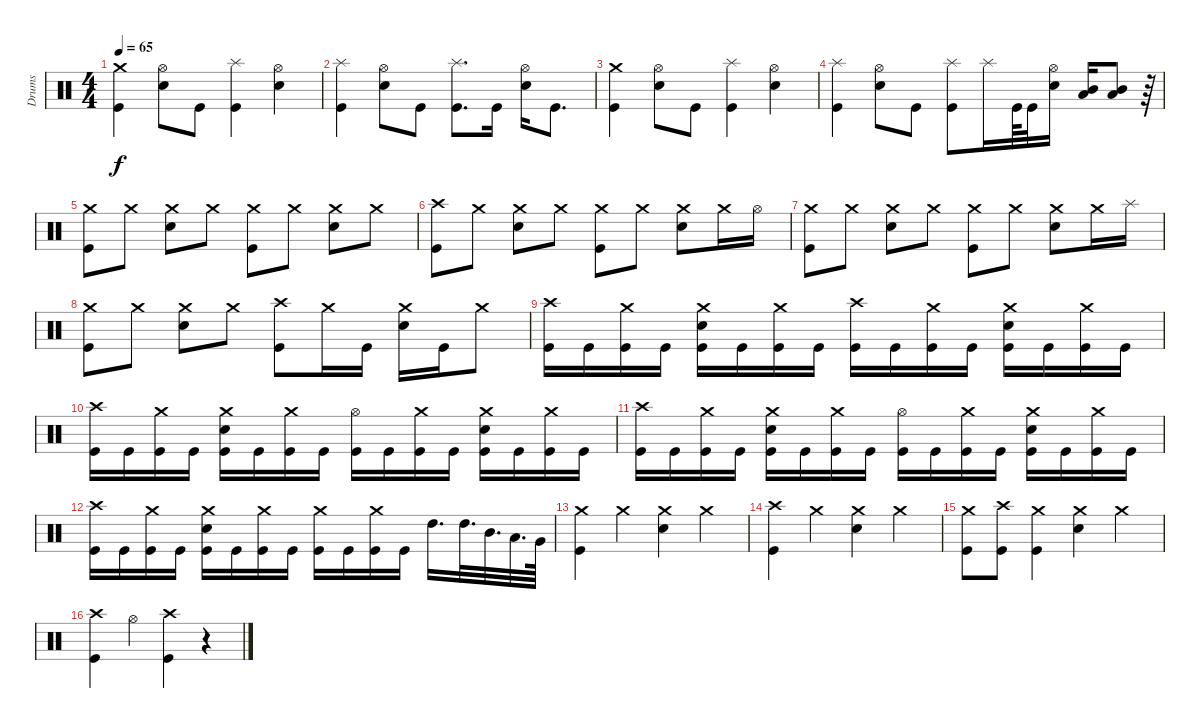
\track ("Drums" "Drums") {instrument percussion}
\staff {score}
\articulation defaults
\ts (4 4)
\tempo 65
\clef neutral
\ks c
("Crash medium (hit)" "Kick (hit)").4{dy f} ("Hi-Hat (open)" "Snare (hit) 2").8 "Kick (hit)".8 ("Splash (hit)" "Kick (hit)").4 ("Hi-Hat (open)" "Snare (hit) 2").4 |
("Splash (hit)" "Kick (hit)").4 ("Hi-Hat (open)" "Snare (hit) 2").8 "Kick (hit)".8 ("Splash (hit)" "Kick (hit)").8{d} "Kick (hit)".16 ("Hi-Hat (open)" "Snare (hit) 2").16 "Kick (hit)".8{d} |
("Crash medium (hit)" "Kick (hit)").4 ("Hi-Hat (open)" "Snare (hit) 2").8 "Kick (hit)".8 ("Splash (hit)" "Kick (hit)").4 ("Hi-Hat (open)" "Snare (hit) 2").4 |
("Splash (hit)" "Kick (hit)").4 ("Hi-Hat (open)" "Snare (hit) 2").8 "Kick (hit)".8 ("Splash (hit)" "Kick (hit)").8 "Splash (hit)".16 "Kick (hit)".64 "Kick (hit)".32 ("Hi-Hat (open)" "Snare (hit) 2").16 ("Low Floor Tom (hit)" "Mid Tom (hit)").16 ("Low Floor Tom (hit)" "Mid Tom (hit)").8 r.64 |
("Crash medium (hit)" "Kick (hit)").8 "Crash medium (hit)".8 ("Crash medium (hit)" "Snare (hit) 2").8 "Crash medium (hit)".8 ("Crash medium (hit)" "Kick (hit)").8 "Crash medium (hit)".8 ("Crash medium (hit)" "Snare (hit) 2").8 "Crash medium (hit)".8 |
("Crash high (hit)" "Kick (hit)").8 "Crash medium (hit)".8 ("Crash medium (hit)" "Snare (hit) 2").8 "Crash medium (hit)".8 ("Crash medium (hit)" "Kick (hit)").8 "Crash medium (hit)".8 ("Crash medium (hit)" "Snare (hit) 2").8 "Crash medium (hit)".16 "Hi-Hat (open)".16 |
("Crash medium (hit)" "Kick (hit)").8 "Crash medium (hit)".8 ("Crash medium (hit)" "Snare (hit) 2").8 "Crash medium (hit)".8 ("Crash medium (hit)" "Kick (hit)").8 "Crash medium (hit)".8 ("Crash medium (hit)" "Snare (hit) 2").8 "Crash medium (hit)".16 "Splash (hit)".16 |
("Crash medium (hit)" "Kick (hit)").8 "Crash medium (hit)".8 ("Crash medium (hit)" "Snare (hit) 2").8 "Crash medium (hit)".8 ("Crash high (hit)" "Kick (hit)").8 "Crash medium (hit)".16 "Kick (hit)".16 ("Crash medium (hit)" "Snare (hit) 2").16 "Kick (hit)".16 "Crash medium (hit)".8 |
("Crash high (hit)" "Kick (hit)").16 "Kick (hit)".16 ("Crash medium (hit)" "Kick (hit)").16 "Kick (hit)".16 ("Crash medium (hit)" "Snare (hit) 2" "Kick (hit)").16 "Kick (hit)".16 ("Crash medium (hit)" "Kick (hit)").16 "Kick (hit)".16 ("Crash high (hit)" "Kick (hit)").16 "Kick (hit)".16 ("Crash medium (hit)" "Kick (hit)").16 "Kick (hit)".16 ("Crash medium (hit)" "Snare (hit) 2" "Kick (hit)").16 "Kick (hit)".16 ("Crash medium (hit)" "Kick (hit)").16 "Kick (hit)".16 |
("Crash high (hit)" "Kick (hit)").16 "Kick (hit)".16 ("Crash medium (hit)" "Kick (hit)").16 "Kick (hit)".16 ("Crash medium (hit)" "Snare (hit) 2" "Kick (hit)").16 "Kick (hit)".16 ("Crash medium (hit)" "Kick (hit)").16 "Kick (hit)".16 ("Hi-Hat (open)" "Kick (hit)").16 "Kick (hit)".16 ("Crash medium (hit)" "Kick (hit)").16 "Kick (hit)".16 ("Crash medium (hit)" "Snare (hit) 2" "Kick (hit)").16 "Kick (hit)".16 ("Crash medium (hit)" "Kick (hit)").16 "Kick (hit)".16 |
("Crash high (hit)" "Kick (hit)").16 "Kick (hit)".16 ("Crash medium (hit)" "Kick (hit)").16 "Kick (hit)".16 ("Crash medium (hit)" "Snare (hit) 2" "Kick (hit)").16 "Kick (hit)".16 ("Crash medium (hit)" "Kick (hit)").16 "Kick (hit)".16 ("Hi-Hat (open)" "Kick (hit)").16 "Kick (hit)".16 ("Crash medium (hit)" "Kick (hit)").16 "Kick (hit)".16 ("Crash medium (hit)" "Snare (hit) 2" "Kick (hit)").16 "Kick (hit)".16 ("Crash medium (hit)" "Kick (hit)").16 "Kick (hit)".16 |
("Crash high (hit)" "Kick (hit)").16 "Kick (hit)".16 ("Crash medium (hit)" "Kick (hit)").16 "Kick (hit)".16 ("Crash medium (hit)" "Snare (hit) 2" "Kick (hit)").16 "Kick (hit)".16 ("Crash medium (hit)" "Kick (hit)").16 "Kick (hit)".16 ("Crash medium (hit)" "Kick (hit)").16 "Kick (hit)".16 ("Crash medium (hit)" "Kick (hit)").16 "Kick (hit)".16 "High Tom (hit)".16{d} "High Tom (hit)".32{d} "Mid Tom (hit)".32{d} "Low Tom (hit)".32{d} "Very Low Tom (hit)".64 |
("Crash medium (hit)" "Kick (hit)").4 "Crash medium (hit)".4 ("Crash medium (hit)" "Snare (hit) 2").4 "Crash medium (hit)".4 |
("Crash high (hit)" "Kick (hit)").4 "Crash medium (hit)".4 ("Crash medium (hit)" "Snare (hit) 2").4 "Crash medium (hit)".4 |
("Crash medium (hit)" "Kick (hit)").8 ("Crash high (hit)" "Kick (hit)").8 ("Crash medium (hit)" "Kick (hit)").4 ("Crash medium (hit)" "Snare (hit) 2").4 "Crash medium (hit)".4 |
("Crash high (hit)" "Kick (hit)").4 "Hi-Hat (open)".4 ("Crash high (hit)" "Kick (hit)").4 r.4
